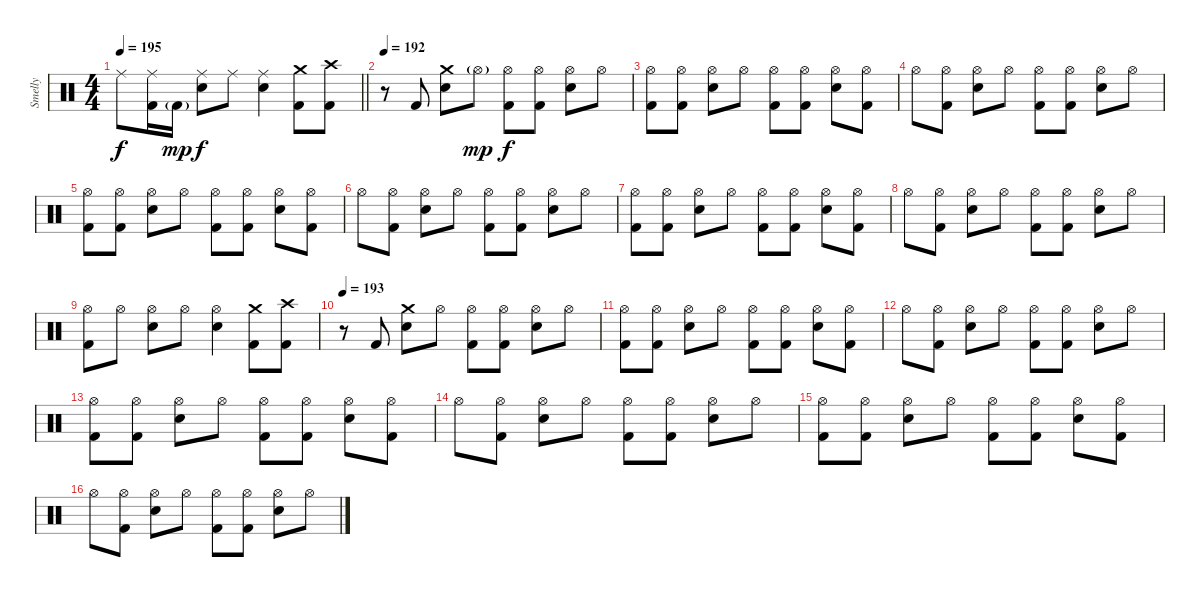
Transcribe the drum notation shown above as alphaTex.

\track ("Smelly" "Smelly") {instrument percussion}
\staff {score}
\articulation defaults
\ts (4 4)
\tempo 195
\clef neutral
\barLineRight lightlight
\ks c "Ride (middle)".8{dy f}
("Ride (middle)" "Kick (hit) 2").16 "Kick (hit) 2"{g}.16{dy mp} ("Ride (middle)" "Electric Snare (hit)").8{dy f} "Ride (middle)".8 ("Ride (middle)" "Electric Snare (hit)").4 ("Crash medium (hit)" "Kick (hit) 2").8 ("Crash high (hit)" "Kick (hit) 2").8 |
\section ("" "")
\tempo 192
r.8 "Kick (hit) 2".8 ("Crash medium (hit)" "Electric Snare (hit)").8 "Hi-Hat (open)"{g}.8{dy mp} ("Hi-Hat (open)" "Kick (hit) 2").8{dy f} ("Hi-Hat (open)" "Kick (hit) 2").8 ("Hi-Hat (open)" "Electric Snare (hit)").8 "Hi-Hat (open)".8 |
("Hi-Hat (open)" "Kick (hit) 2").8 ("Hi-Hat (open)" "Kick (hit) 2").8 ("Hi-Hat (open)" "Electric Snare (hit)").8 "Hi-Hat (open)".8 ("Hi-Hat (open)" "Kick (hit) 2").8 ("Hi-Hat (open)" "Kick (hit) 2").8 ("Hi-Hat (open)" "Electric Snare (hit)").8 ("Hi-Hat (open)" "Kick (hit) 2").8 |
"Hi-Hat (open)".8 ("Hi-Hat (open)" "Kick (hit) 2").8 ("Hi-Hat (open)" "Electric Snare (hit)").8 "Hi-Hat (open)".8 ("Hi-Hat (open)" "Kick (hit) 2").8 ("Hi-Hat (open)" "Kick (hit) 2").8 ("Hi-Hat (open)" "Electric Snare (hit)").8 "Hi-Hat (open)".8 |
("Hi-Hat (open)" "Kick (hit) 2").8 ("Hi-Hat (open)" "Kick (hit) 2").8 ("Hi-Hat (open)" "Electric Snare (hit)").8 "Hi-Hat (open)".8 ("Hi-Hat (open)" "Kick (hit) 2").8 ("Hi-Hat (open)" "Kick (hit) 2").8 ("Hi-Hat (open)" "Electric Snare (hit)").8 ("Hi-Hat (open)" "Kick (hit) 2").8 |
"Hi-Hat (open)".8 ("Hi-Hat (open)" "Kick (hit) 2").8 ("Hi-Hat (open)" "Electric Snare (hit)").8 "Hi-Hat (open)".8 ("Hi-Hat (open)" "Kick (hit) 2").8 ("Hi-Hat (open)" "Kick (hit) 2").8 ("Hi-Hat (open)" "Electric Snare (hit)").8 "Hi-Hat (open)".8 |
("Hi-Hat (open)" "Kick (hit) 2").8 ("Hi-Hat (open)" "Kick (hit) 2").8 ("Hi-Hat (open)" "Electric Snare (hit)").8 "Hi-Hat (open)".8 ("Hi-Hat (open)" "Kick (hit) 2").8 ("Hi-Hat (open)" "Kick (hit) 2").8 ("Hi-Hat (open)" "Electric Snare (hit)").8 ("Hi-Hat (open)" "Kick (hit) 2").8 |
"Hi-Hat (open)".8 ("Hi-Hat (open)" "Kick (hit) 2").8 ("Hi-Hat (open)" "Electric Snare (hit)").8 "Hi-Hat (open)".8 ("Hi-Hat (open)" "Kick (hit) 2").8 ("Hi-Hat (open)" "Kick (hit) 2").8 ("Hi-Hat (open)" "Electric Snare (hit)").8 "Hi-Hat (open)".8 |
("Hi-Hat (open)" "Kick (hit) 2").8 "Hi-Hat (open)".8 ("Hi-Hat (open)" "Electric Snare (hit)").8 "Hi-Hat (open)".8 ("Hi-Hat (open)" "Electric Snare (hit)").4 ("Crash medium (hit)" "Kick (hit) 2").8 ("Crash high (hit)" "Kick (hit) 2").8 |
\tempo 193
r.8 "Kick (hit) 2".8 ("Crash medium (hit)" "Electric Snare (hit)").8 "Hi-Hat (open)".8 ("Hi-Hat (open)" "Kick (hit) 2").8 ("Hi-Hat (open)" "Kick (hit) 2").8 ("Hi-Hat (open)" "Electric Snare (hit)").8 "Hi-Hat (open)".8 |
("Hi-Hat (open)" "Kick (hit) 2").8 ("Hi-Hat (open)" "Kick (hit) 2").8 ("Hi-Hat (open)" "Electric Snare (hit)").8 "Hi-Hat (open)".8 ("Hi-Hat (open)" "Kick (hit) 2").8 ("Hi-Hat (open)" "Kick (hit) 2").8 ("Hi-Hat (open)" "Electric Snare (hit)").8 ("Hi-Hat (open)" "Kick (hit) 2").8 |
"Hi-Hat (open)".8 ("Hi-Hat (open)" "Kick (hit) 2").8 ("Hi-Hat (open)" "Electric Snare (hit)").8 "Hi-Hat (open)".8 ("Hi-Hat (open)" "Kick (hit) 2").8 ("Hi-Hat (open)" "Kick (hit) 2").8 ("Hi-Hat (open)" "Electric Snare (hit)").8 "Hi-Hat (open)".8 |
("Hi-Hat (open)" "Kick (hit) 2").8 ("Hi-Hat (open)" "Kick (hit) 2").8 ("Hi-Hat (open)" "Electric Snare (hit)").8 "Hi-Hat (open)".8 ("Hi-Hat (open)" "Kick (hit) 2").8 ("Hi-Hat (open)" "Kick (hit) 2").8 ("Hi-Hat (open)" "Electric Snare (hit)").8 ("Hi-Hat (open)" "Kick (hit) 2").8 |
"Hi-Hat (open)".8 ("Hi-Hat (open)" "Kick (hit) 2").8 ("Hi-Hat (open)" "Electric Snare (hit)").8 "Hi-Hat (open)".8 ("Hi-Hat (open)" "Kick (hit) 2").8 ("Hi-Hat (open)" "Kick (hit) 2").8 ("Hi-Hat (open)" "Electric Snare (hit)").8 "Hi-Hat (open)".8 |
("Hi-Hat (open)" "Kick (hit) 2").8 ("Hi-Hat (open)" "Kick (hit) 2").8 ("Hi-Hat (open)" "Electric Snare (hit)").8 "Hi-Hat (open)".8 ("Hi-Hat (open)" "Kick (hit) 2").8 ("Hi-Hat (open)" "Kick (hit) 2").8 ("Hi-Hat (open)" "Electric Snare (hit)").8 ("Hi-Hat (open)" "Kick (hit) 2").8 |
"Hi-Hat (open)".8 ("Hi-Hat (open)" "Kick (hit) 2").8 ("Hi-Hat (open)" "Electric Snare (hit)").8 "Hi-Hat (open)".8 ("Hi-Hat (open)" "Kick (hit) 2").8 ("Hi-Hat (open)" "Kick (hit) 2").8 ("Hi-Hat (open)" "Electric Snare (hit)").8 "Hi-Hat (open)".8
